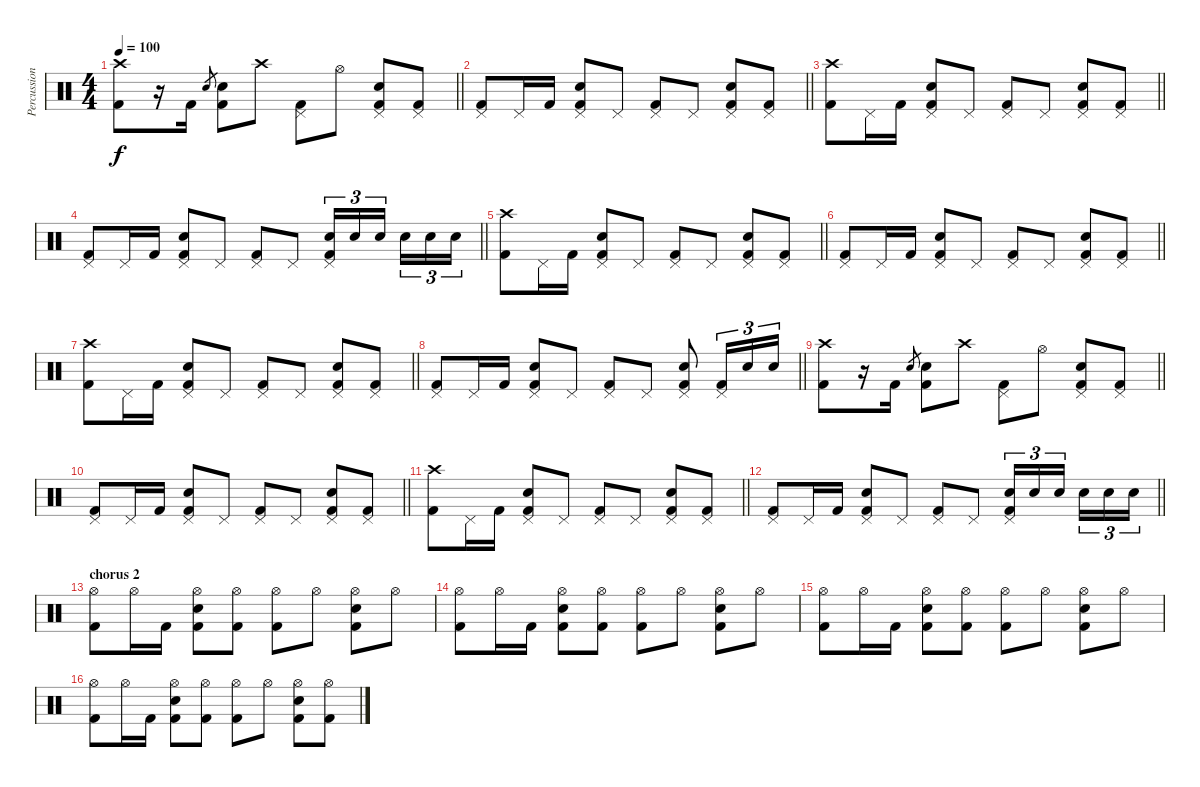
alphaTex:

\track ("Percussion" "Percussion") {instrument percussion}
\staff {score}
\articulation defaults
\ts (4 4)
\tempo 100
\clef neutral
\barLineRight lightlight
\ks c
("Crash high (hit)" "Kick (hit) 2").8{dy f} r.16 "Kick (hit) 2".16 "Electric Snare (hit)".8{gr} ("Electric Snare (hit)" "Kick (hit) 2").8 "Crash high (hit)".8 ("Pedal Hi-Hat (hit)" "Kick (hit) 2").8 "Hi-Hat (open)".8 ("Pedal Hi-Hat (hit)" "Electric Snare (hit)" "Kick (hit) 2").8 ("Pedal Hi-Hat (hit)" "Kick (hit) 2").8 |
\barLineRight lightlight
("Pedal Hi-Hat (hit)" "Kick (hit) 2").8 "Pedal Hi-Hat (hit)".16 "Kick (hit) 2".16 ("Pedal Hi-Hat (hit)" "Electric Snare (hit)" "Kick (hit) 2").8 "Pedal Hi-Hat (hit)".8 ("Pedal Hi-Hat (hit)" "Kick (hit) 2").8 "Pedal Hi-Hat (hit)".8 ("Pedal Hi-Hat (hit)" "Electric Snare (hit)" "Kick (hit) 2").8 ("Pedal Hi-Hat (hit)" "Kick (hit) 2").8 |
\barLineRight lightlight
("Crash high (hit)" "Kick (hit) 2").8 "Pedal Hi-Hat (hit)".16 "Kick (hit) 2".16 ("Pedal Hi-Hat (hit)" "Electric Snare (hit)" "Kick (hit) 2").8 "Pedal Hi-Hat (hit)".8 ("Pedal Hi-Hat (hit)" "Kick (hit) 2").8 "Pedal Hi-Hat (hit)".8 ("Pedal Hi-Hat (hit)" "Electric Snare (hit)" "Kick (hit) 2").8 ("Pedal Hi-Hat (hit)" "Kick (hit) 2").8 |
\barLineRight lightlight
("Pedal Hi-Hat (hit)" "Kick (hit) 2").8 "Pedal Hi-Hat (hit)".16 "Kick (hit) 2".16 ("Pedal Hi-Hat (hit)" "Electric Snare (hit)" "Kick (hit) 2").8 "Pedal Hi-Hat (hit)".8 ("Pedal Hi-Hat (hit)" "Kick (hit) 2").8 "Pedal Hi-Hat (hit)".8 ("Pedal Hi-Hat (hit)" "Electric Snare (hit)" "Kick (hit) 2").16{tu (3 2)} "Electric Snare (hit)".16{tu (3 2)} "Electric Snare (hit)".16{tu (3 2) beam splitsecondary} "Electric Snare (hit)".16{tu (3 2)} "Electric Snare (hit)".16{tu (3 2)} "Electric Snare (hit)".16{tu (3 2)} |
\barLineRight lightlight
("Crash high (hit)" "Kick (hit) 2").8 "Pedal Hi-Hat (hit)".16 "Kick (hit) 2".16 ("Pedal Hi-Hat (hit)" "Electric Snare (hit)" "Kick (hit) 2").8 "Pedal Hi-Hat (hit)".8 ("Pedal Hi-Hat (hit)" "Kick (hit) 2").8 "Pedal Hi-Hat (hit)".8 ("Pedal Hi-Hat (hit)" "Electric Snare (hit)" "Kick (hit) 2").8 ("Pedal Hi-Hat (hit)" "Kick (hit) 2").8 |
\barLineRight lightlight
("Pedal Hi-Hat (hit)" "Kick (hit) 2").8 "Pedal Hi-Hat (hit)".16 "Kick (hit) 2".16 ("Pedal Hi-Hat (hit)" "Electric Snare (hit)" "Kick (hit) 2").8 "Pedal Hi-Hat (hit)".8 ("Pedal Hi-Hat (hit)" "Kick (hit) 2").8 "Pedal Hi-Hat (hit)".8 ("Pedal Hi-Hat (hit)" "Electric Snare (hit)" "Kick (hit) 2").8 ("Pedal Hi-Hat (hit)" "Kick (hit) 2").8 |
\barLineRight lightlight
("Crash high (hit)" "Kick (hit) 2").8 "Pedal Hi-Hat (hit)".16 "Kick (hit) 2".16 ("Pedal Hi-Hat (hit)" "Electric Snare (hit)" "Kick (hit) 2").8 "Pedal Hi-Hat (hit)".8 ("Pedal Hi-Hat (hit)" "Kick (hit) 2").8 "Pedal Hi-Hat (hit)".8 ("Pedal Hi-Hat (hit)" "Electric Snare (hit)" "Kick (hit) 2").8 ("Pedal Hi-Hat (hit)" "Kick (hit) 2").8 |
\barLineRight lightlight
("Pedal Hi-Hat (hit)" "Kick (hit) 2").8 "Pedal Hi-Hat (hit)".16 "Kick (hit) 2".16 ("Pedal Hi-Hat (hit)" "Electric Snare (hit)" "Kick (hit) 2").8 "Pedal Hi-Hat (hit)".8 ("Pedal Hi-Hat (hit)" "Kick (hit) 2").8 "Pedal Hi-Hat (hit)".8 ("Pedal Hi-Hat (hit)" "Electric Snare (hit)" "Kick (hit) 2").8 ("Pedal Hi-Hat (hit)" "Kick (hit) 2").16{tu (3 2)} "Electric Snare (hit)".16{tu (3 2)} "Electric Snare (hit)".16{tu (3 2)} |
\barLineRight lightlight
("Crash high (hit)" "Kick (hit) 2").8 r.16 "Kick (hit) 2".16 "Electric Snare (hit)".8{gr} ("Electric Snare (hit)" "Kick (hit) 2").8 "Crash high (hit)".8 ("Pedal Hi-Hat (hit)" "Kick (hit) 2").8 "Hi-Hat (open)".8 ("Pedal Hi-Hat (hit)" "Electric Snare (hit)" "Kick (hit) 2").8 ("Pedal Hi-Hat (hit)" "Kick (hit) 2").8 |
\barLineRight lightlight
("Pedal Hi-Hat (hit)" "Kick (hit) 2").8 "Pedal Hi-Hat (hit)".16 "Kick (hit) 2".16 ("Pedal Hi-Hat (hit)" "Electric Snare (hit)" "Kick (hit) 2").8 "Pedal Hi-Hat (hit)".8 ("Pedal Hi-Hat (hit)" "Kick (hit) 2").8 "Pedal Hi-Hat (hit)".8 ("Pedal Hi-Hat (hit)" "Electric Snare (hit)" "Kick (hit) 2").8 ("Pedal Hi-Hat (hit)" "Kick (hit) 2").8 |
\barLineRight lightlight
("Crash high (hit)" "Kick (hit) 2").8 "Pedal Hi-Hat (hit)".16 "Kick (hit) 2".16 ("Pedal Hi-Hat (hit)" "Electric Snare (hit)" "Kick (hit) 2").8 "Pedal Hi-Hat (hit)".8 ("Pedal Hi-Hat (hit)" "Kick (hit) 2").8 "Pedal Hi-Hat (hit)".8 ("Pedal Hi-Hat (hit)" "Electric Snare (hit)" "Kick (hit) 2").8 ("Pedal Hi-Hat (hit)" "Kick (hit) 2").8 |
\barLineRight lightlight
("Pedal Hi-Hat (hit)" "Kick (hit) 2").8 "Pedal Hi-Hat (hit)".16 "Kick (hit) 2".16 ("Pedal Hi-Hat (hit)" "Electric Snare (hit)" "Kick (hit) 2").8 "Pedal Hi-Hat (hit)".8 ("Pedal Hi-Hat (hit)" "Kick (hit) 2").8 "Pedal Hi-Hat (hit)".8 ("Pedal Hi-Hat (hit)" "Electric Snare (hit)" "Kick (hit) 2").16{tu (3 2)} "Electric Snare (hit)".16{tu (3 2)} "Electric Snare (hit)".16{tu (3 2) beam splitsecondary} "Electric Snare (hit)".16{tu (3 2)} "Electric Snare (hit)".16{tu (3 2)} "Electric Snare (hit)".16{tu (3 2)} |
\section ("" "chorus 2")
("Hi-Hat (open)" "Kick (hit) 2").8 "Hi-Hat (open)".16 "Kick (hit) 2".16 ("Hi-Hat (open)" "Electric Snare (hit)" "Kick (hit) 2").8 ("Hi-Hat (open)" "Kick (hit) 2").8 ("Hi-Hat (open)" "Kick (hit) 2").8 "Hi-Hat (open)".8 ("Hi-Hat (open)" "Electric Snare (hit)" "Kick (hit) 2").8 "Hi-Hat (open)".8 |
("Hi-Hat (open)" "Kick (hit) 2").8 "Hi-Hat (open)".16 "Kick (hit) 2".16 ("Hi-Hat (open)" "Electric Snare (hit)" "Kick (hit) 2").8 ("Hi-Hat (open)" "Kick (hit) 2").8 ("Hi-Hat (open)" "Kick (hit) 2").8 "Hi-Hat (open)".8 ("Hi-Hat (open)" "Electric Snare (hit)" "Kick (hit) 2").8 "Hi-Hat (open)".8 |
("Hi-Hat (open)" "Kick (hit) 2").8 "Hi-Hat (open)".16 "Kick (hit) 2".16 ("Hi-Hat (open)" "Electric Snare (hit)" "Kick (hit) 2").8 ("Hi-Hat (open)" "Kick (hit) 2").8 ("Hi-Hat (open)" "Kick (hit) 2").8 "Hi-Hat (open)".8 ("Hi-Hat (open)" "Electric Snare (hit)" "Kick (hit) 2").8 "Hi-Hat (open)".8 |
("Hi-Hat (open)" "Kick (hit) 2").8 "Hi-Hat (open)".16 "Kick (hit) 2".16 ("Hi-Hat (open)" "Electric Snare (hit)" "Kick (hit) 2").8 ("Hi-Hat (open)" "Kick (hit) 2").8 ("Hi-Hat (open)" "Kick (hit) 2").8 "Hi-Hat (open)".8 ("Hi-Hat (open)" "Electric Snare (hit)" "Kick (hit) 2").8 ("Hi-Hat (open)" "Kick (hit) 2").8
